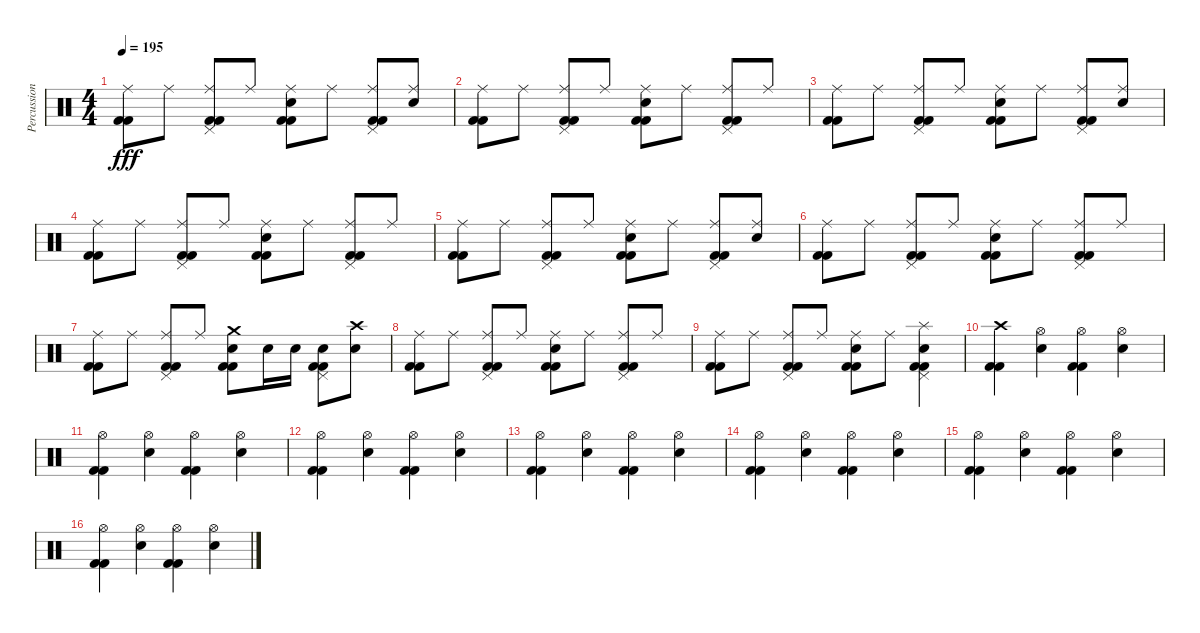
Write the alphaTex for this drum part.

\track ("Percussions" "Percussion") {instrument percussion}
\staff {score}
\articulation defaults
\ts (4 4)
\tempo 195
\clef neutral
\ks c
("Ride (middle)" "Kick (hit) 2" "Kick (hit) 2").8{dy fff} "Ride (middle)".8 ("Ride (middle)" "Pedal Hi-Hat (hit)" "Kick (hit) 2" "Kick (hit) 2").8 "Ride (middle)".8 ("Ride (middle)" "Electric Snare (hit)" "Kick (hit) 2" "Kick (hit) 2").8 "Ride (middle)".8 ("Ride (middle)" "Pedal Hi-Hat (hit)" "Kick (hit) 2" "Kick (hit) 2").8 ("Ride (middle)" "Electric Snare (hit)").8 |
("Ride (middle)" "Kick (hit) 2" "Kick (hit) 2").8 "Ride (middle)".8 ("Ride (middle)" "Pedal Hi-Hat (hit)" "Kick (hit) 2" "Kick (hit) 2").8 "Ride (middle)".8 ("Ride (middle)" "Electric Snare (hit)" "Kick (hit) 2" "Kick (hit) 2").8 "Ride (middle)".8 ("Ride (middle)" "Pedal Hi-Hat (hit)" "Kick (hit) 2" "Kick (hit) 2").8 "Ride (middle)".8 |
("Ride (middle)" "Kick (hit) 2" "Kick (hit) 2").8 "Ride (middle)".8 ("Ride (middle)" "Pedal Hi-Hat (hit)" "Kick (hit) 2" "Kick (hit) 2").8 "Ride (middle)".8 ("Ride (middle)" "Electric Snare (hit)" "Kick (hit) 2" "Kick (hit) 2").8 "Ride (middle)".8 ("Ride (middle)" "Pedal Hi-Hat (hit)" "Kick (hit) 2" "Kick (hit) 2").8 ("Ride (middle)" "Electric Snare (hit)").8 |
("Ride (middle)" "Kick (hit) 2" "Kick (hit) 2").8 "Ride (middle)".8 ("Ride (middle)" "Pedal Hi-Hat (hit)" "Kick (hit) 2" "Kick (hit) 2").8 "Ride (middle)".8 ("Ride (middle)" "Electric Snare (hit)" "Kick (hit) 2" "Kick (hit) 2").8 "Ride (middle)".8 ("Ride (middle)" "Pedal Hi-Hat (hit)" "Kick (hit) 2" "Kick (hit) 2").8 "Ride (middle)".8 |
("Ride (middle)" "Kick (hit) 2" "Kick (hit) 2").8 "Ride (middle)".8 ("Ride (middle)" "Pedal Hi-Hat (hit)" "Kick (hit) 2" "Kick (hit) 2").8 "Ride (middle)".8 ("Ride (middle)" "Electric Snare (hit)" "Kick (hit) 2" "Kick (hit) 2").8 "Ride (middle)".8 ("Ride (middle)" "Pedal Hi-Hat (hit)" "Kick (hit) 2" "Kick (hit) 2").8 ("Ride (middle)" "Electric Snare (hit)").8 |
("Ride (middle)" "Kick (hit) 2" "Kick (hit) 2").8 "Ride (middle)".8 ("Ride (middle)" "Pedal Hi-Hat (hit)" "Kick (hit) 2" "Kick (hit) 2").8 "Ride (middle)".8 ("Ride (middle)" "Electric Snare (hit)" "Kick (hit) 2" "Kick (hit) 2").8 "Ride (middle)".8 ("Ride (middle)" "Pedal Hi-Hat (hit)" "Kick (hit) 2" "Kick (hit) 2").8 "Ride (middle)".8 |
("Ride (middle)" "Kick (hit) 2" "Kick (hit) 2").8 "Ride (middle)".8 ("Ride (middle)" "Pedal Hi-Hat (hit)" "Kick (hit) 2" "Kick (hit) 2").8 "Ride (middle)".8 ("Crash medium (hit)" "Electric Snare (hit)" "Kick (hit) 2" "Kick (hit) 2").8 "Electric Snare (hit)".16 "Electric Snare (hit)".16 ("Electric Snare (hit)" "Pedal Hi-Hat (hit)" "Kick (hit) 2" "Kick (hit) 2").8 ("Crash high (hit)" "Electric Snare (hit)").8 |
("Ride (middle)" "Kick (hit) 2" "Kick (hit) 2").8 "Ride (middle)".8 ("Ride (middle)" "Pedal Hi-Hat (hit)" "Kick (hit) 2" "Kick (hit) 2").8 "Ride (middle)".8 ("Ride (middle)" "Electric Snare (hit)" "Kick (hit) 2" "Kick (hit) 2").8 "Ride (middle)".8 ("Ride (middle)" "Pedal Hi-Hat (hit)" "Kick (hit) 2" "Kick (hit) 2").8 "Ride (middle)".8 |
("Ride (middle)" "Kick (hit) 2" "Kick (hit) 2").8 "Ride (middle)".8 ("Ride (middle)" "Pedal Hi-Hat (hit)" "Kick (hit) 2" "Kick (hit) 2").8 "Ride (middle)".8 ("Ride (middle)" "Electric Snare (hit)" "Kick (hit) 2" "Kick (hit) 2").8 "Ride (middle)".8 ("Splash (hit)" "Electric Snare (hit)" "Pedal Hi-Hat (hit)" "Kick (hit) 2" "Kick (hit) 2").4 |
("Crash high (hit)" "Kick (hit) 2" "Kick (hit) 2").4 ("Hi-Hat (open)" "Electric Snare (hit)").4 ("Hi-Hat (open)" "Kick (hit) 2" "Kick (hit) 2").4 ("Hi-Hat (open)" "Electric Snare (hit)").4 |
("Hi-Hat (open)" "Kick (hit) 2" "Kick (hit) 2").4 ("Hi-Hat (open)" "Electric Snare (hit)").4 ("Hi-Hat (open)" "Kick (hit) 2" "Kick (hit) 2").4 ("Hi-Hat (open)" "Electric Snare (hit)").4 |
("Hi-Hat (open)" "Kick (hit) 2" "Kick (hit) 2").4 ("Hi-Hat (open)" "Electric Snare (hit)").4 ("Hi-Hat (open)" "Kick (hit) 2" "Kick (hit) 2").4 ("Hi-Hat (open)" "Electric Snare (hit)").4 |
("Hi-Hat (open)" "Kick (hit) 2" "Kick (hit) 2").4 ("Hi-Hat (open)" "Electric Snare (hit)").4 ("Hi-Hat (open)" "Kick (hit) 2" "Kick (hit) 2").4 ("Hi-Hat (open)" "Electric Snare (hit)").4 |
("Hi-Hat (open)" "Kick (hit) 2" "Kick (hit) 2").4 ("Hi-Hat (open)" "Electric Snare (hit)").4 ("Hi-Hat (open)" "Kick (hit) 2" "Kick (hit) 2").4 ("Hi-Hat (open)" "Electric Snare (hit)").4 |
("Hi-Hat (open)" "Kick (hit) 2" "Kick (hit) 2").4 ("Hi-Hat (open)" "Electric Snare (hit)").4 ("Hi-Hat (open)" "Kick (hit) 2" "Kick (hit) 2").4 ("Hi-Hat (open)" "Electric Snare (hit)").4 |
("Hi-Hat (open)" "Kick (hit) 2" "Kick (hit) 2").4 ("Hi-Hat (open)" "Electric Snare (hit)").4 ("Hi-Hat (open)" "Kick (hit) 2" "Kick (hit) 2").4 ("Hi-Hat (open)" "Electric Snare (hit)").4
